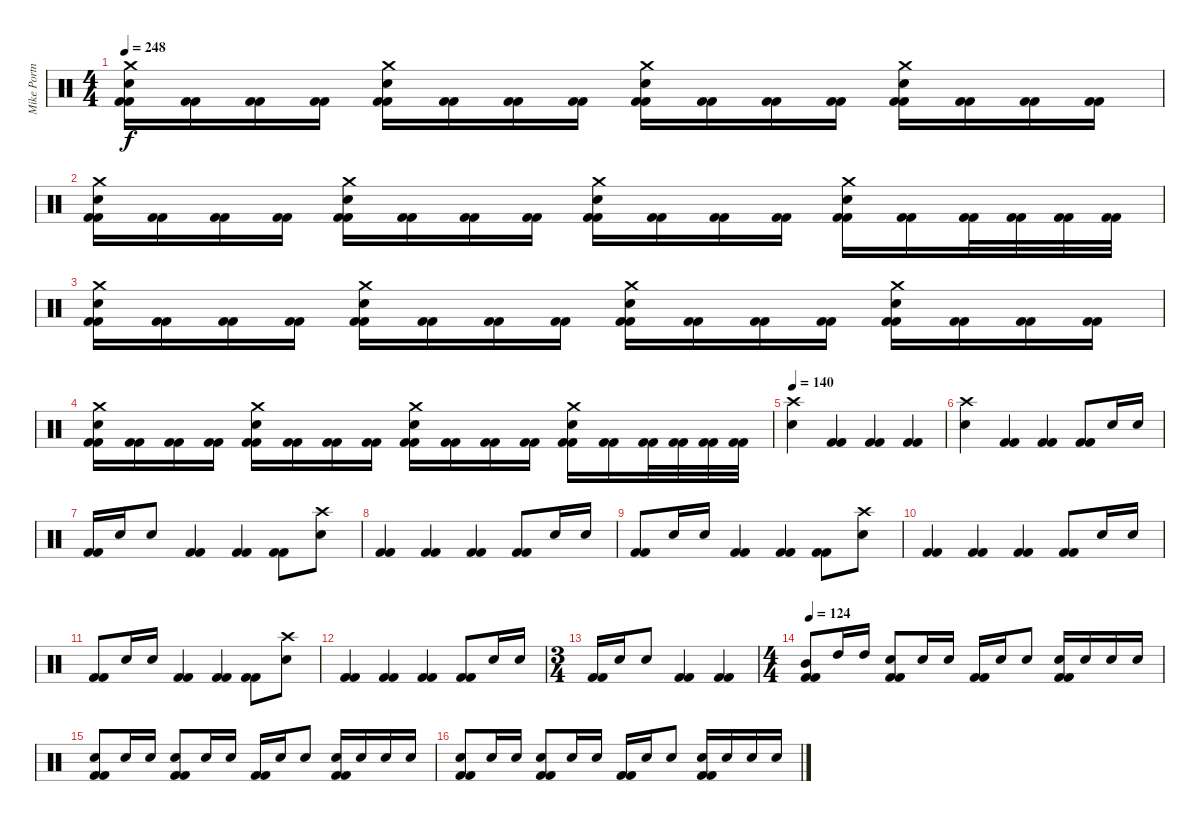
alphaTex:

\track ("Mike Portnoy - Drum" "Mike Portn") {instrument percussion}
\staff {score}
\articulation defaults
\ts (4 4)
\tempo 248
\clef neutral
\ks c
("Crash medium (hit)" "Snare (hit) 2" "Kick (hit) 2" "Kick (hit) 2").16{dy f} ("Kick (hit) 2" "Kick (hit) 2").16 ("Kick (hit) 2" "Kick (hit) 2").16 ("Kick (hit) 2" "Kick (hit) 2").16 ("Crash medium (hit)" "Snare (hit) 2" "Kick (hit) 2" "Kick (hit) 2").16 ("Kick (hit) 2" "Kick (hit) 2").16 ("Kick (hit) 2" "Kick (hit) 2").16 ("Kick (hit) 2" "Kick (hit) 2").16 ("Crash medium (hit)" "Snare (hit) 2" "Kick (hit) 2" "Kick (hit) 2").16 ("Kick (hit) 2" "Kick (hit) 2").16 ("Kick (hit) 2" "Kick (hit) 2").16 ("Kick (hit) 2" "Kick (hit) 2").16 ("Crash medium (hit)" "Snare (hit) 2" "Kick (hit) 2" "Kick (hit) 2").16 ("Kick (hit) 2" "Kick (hit) 2").16 ("Kick (hit) 2" "Kick (hit) 2").16 ("Kick (hit) 2" "Kick (hit) 2").16 |
("Crash medium (hit)" "Snare (hit) 2" "Kick (hit) 2" "Kick (hit) 2").16 ("Kick (hit) 2" "Kick (hit) 2").16 ("Kick (hit) 2" "Kick (hit) 2").16 ("Kick (hit) 2" "Kick (hit) 2").16 ("Crash medium (hit)" "Snare (hit) 2" "Kick (hit) 2" "Kick (hit) 2").16 ("Kick (hit) 2" "Kick (hit) 2").16 ("Kick (hit) 2" "Kick (hit) 2").16 ("Kick (hit) 2" "Kick (hit) 2").16 ("Crash medium (hit)" "Snare (hit) 2" "Kick (hit) 2" "Kick (hit) 2").16 ("Kick (hit) 2" "Kick (hit) 2").16 ("Kick (hit) 2" "Kick (hit) 2").16 ("Kick (hit) 2" "Kick (hit) 2").16 ("Crash medium (hit)" "Snare (hit) 2" "Kick (hit) 2" "Kick (hit) 2").16 ("Kick (hit) 2" "Kick (hit) 2").16 ("Kick (hit) 2" "Kick (hit) 2").32 ("Kick (hit) 2" "Kick (hit) 2").32 ("Kick (hit) 2" "Kick (hit) 2").32 ("Kick (hit) 2" "Kick (hit) 2").32 |
("Crash medium (hit)" "Snare (hit) 2" "Kick (hit) 2" "Kick (hit) 2").16 ("Kick (hit) 2" "Kick (hit) 2").16 ("Kick (hit) 2" "Kick (hit) 2").16 ("Kick (hit) 2" "Kick (hit) 2").16 ("Crash medium (hit)" "Snare (hit) 2" "Kick (hit) 2" "Kick (hit) 2").16 ("Kick (hit) 2" "Kick (hit) 2").16 ("Kick (hit) 2" "Kick (hit) 2").16 ("Kick (hit) 2" "Kick (hit) 2").16 ("Crash medium (hit)" "Snare (hit) 2" "Kick (hit) 2" "Kick (hit) 2").16 ("Kick (hit) 2" "Kick (hit) 2").16 ("Kick (hit) 2" "Kick (hit) 2").16 ("Kick (hit) 2" "Kick (hit) 2").16 ("Crash medium (hit)" "Snare (hit) 2" "Kick (hit) 2" "Kick (hit) 2").16 ("Kick (hit) 2" "Kick (hit) 2").16 ("Kick (hit) 2" "Kick (hit) 2").16 ("Kick (hit) 2" "Kick (hit) 2").16 |
("Crash medium (hit)" "Snare (hit) 2" "Kick (hit) 2" "Kick (hit) 2").16 ("Kick (hit) 2" "Kick (hit) 2").16 ("Kick (hit) 2" "Kick (hit) 2").16 ("Kick (hit) 2" "Kick (hit) 2").16 ("Crash medium (hit)" "Snare (hit) 2" "Kick (hit) 2" "Kick (hit) 2").16 ("Kick (hit) 2" "Kick (hit) 2").16 ("Kick (hit) 2" "Kick (hit) 2").16 ("Kick (hit) 2" "Kick (hit) 2").16 ("Crash medium (hit)" "Snare (hit) 2" "Kick (hit) 2" "Kick (hit) 2").16 ("Kick (hit) 2" "Kick (hit) 2").16 ("Kick (hit) 2" "Kick (hit) 2").16 ("Kick (hit) 2" "Kick (hit) 2").16 ("Crash medium (hit)" "Snare (hit) 2" "Kick (hit) 2" "Kick (hit) 2").16 ("Kick (hit) 2" "Kick (hit) 2").16 ("Kick (hit) 2" "Kick (hit) 2").32 ("Kick (hit) 2" "Kick (hit) 2").32 ("Kick (hit) 2" "Kick (hit) 2").32 ("Kick (hit) 2" "Kick (hit) 2").32 |
\tempo 140
("Crash high (hit)" "Snare (hit) 2").4 ("Kick (hit) 2" "Kick (hit) 2").4 ("Kick (hit) 2" "Kick (hit) 2").4 ("Kick (hit) 2" "Kick (hit) 2").4 |
("Crash high (hit)" "Snare (hit) 2").4 ("Kick (hit) 2" "Kick (hit) 2").4 ("Kick (hit) 2" "Kick (hit) 2").4 ("Kick (hit) 2" "Kick (hit) 2").8 "Snare (hit) 2".16 "Snare (hit) 2".16 |
("Kick (hit) 2" "Kick (hit) 2").16 "Snare (hit) 2".16 "Snare (hit) 2".8 ("Kick (hit) 2" "Kick (hit) 2").4 ("Kick (hit) 2" "Kick (hit) 2").4 ("Kick (hit) 2" "Kick (hit) 2").8 ("Crash high (hit)" "Snare (hit) 2").8 |
("Kick (hit) 2" "Kick (hit) 2").4 ("Kick (hit) 2" "Kick (hit) 2").4 ("Kick (hit) 2" "Kick (hit) 2").4 ("Kick (hit) 2" "Kick (hit) 2").8 "Snare (hit) 2".16 "Snare (hit) 2".16 |
("Kick (hit) 2" "Kick (hit) 2").8 "Snare (hit) 2".16 "Snare (hit) 2".16 ("Kick (hit) 2" "Kick (hit) 2").4 ("Kick (hit) 2" "Kick (hit) 2").4 ("Kick (hit) 2" "Kick (hit) 2").8 ("Crash high (hit)" "Snare (hit) 2").8 |
("Kick (hit) 2" "Kick (hit) 2").4 ("Kick (hit) 2" "Kick (hit) 2").4 ("Kick (hit) 2" "Kick (hit) 2").4 ("Kick (hit) 2" "Kick (hit) 2").8 "Snare (hit) 2".16 "Snare (hit) 2".16 |
("Kick (hit) 2" "Kick (hit) 2").8 "Snare (hit) 2".16 "Snare (hit) 2".16 ("Kick (hit) 2" "Kick (hit) 2").4 ("Kick (hit) 2" "Kick (hit) 2").4 ("Kick (hit) 2" "Kick (hit) 2").8 ("Crash high (hit)" "Snare (hit) 2").8 |
("Kick (hit) 2" "Kick (hit) 2").4 ("Kick (hit) 2" "Kick (hit) 2").4 ("Kick (hit) 2" "Kick (hit) 2").4 ("Kick (hit) 2" "Kick (hit) 2").8 "Snare (hit) 2".16 "Snare (hit) 2".16 |
\ts (3 4)
("Kick (hit) 2" "Kick (hit) 2").16 "Snare (hit) 2".16 "Snare (hit) 2".8 ("Kick (hit) 2" "Kick (hit) 2").4 ("Kick (hit) 2" "Kick (hit) 2").4 |
\ts (4 4)
\tempo 124
("Mid Tom (hit)" "Kick (hit) 2" "Kick (hit) 2").8 "High Tom (hit)".16 "High Tom (hit)".16 ("Snare (hit) 2" "Kick (hit) 2" "Kick (hit) 2").8 "Snare (hit) 2".16 "Snare (hit) 2".16 ("Kick (hit) 2" "Kick (hit) 2").16 "Snare (hit) 2".16 "Snare (hit) 2".8 ("Snare (hit) 2" "Kick (hit) 2" "Kick (hit) 2").16 "Snare (hit) 2".16 "Snare (hit) 2".16 "Snare (hit) 2".16 |
("Snare (hit) 2" "Kick (hit) 2" "Kick (hit) 2").8 "Snare (hit) 2".16 "Snare (hit) 2".16 ("Snare (hit) 2" "Kick (hit) 2" "Kick (hit) 2").8 "Snare (hit) 2".16 "Snare (hit) 2".16 ("Kick (hit) 2" "Kick (hit) 2").16 "Snare (hit) 2".16 "Snare (hit) 2".8 ("Snare (hit) 2" "Kick (hit) 2" "Kick (hit) 2").16 "Snare (hit) 2".16 "Snare (hit) 2".16 "Snare (hit) 2".16 |
("Snare (hit) 2" "Kick (hit) 2" "Kick (hit) 2").8 "Snare (hit) 2".16 "Snare (hit) 2".16 ("Snare (hit) 2" "Kick (hit) 2" "Kick (hit) 2").8 "Snare (hit) 2".16 "Snare (hit) 2".16 ("Kick (hit) 2" "Kick (hit) 2").16 "Snare (hit) 2".16 "Snare (hit) 2".8 ("Snare (hit) 2" "Kick (hit) 2" "Kick (hit) 2").16 "Snare (hit) 2".16 "Snare (hit) 2".16 "Snare (hit) 2".16
